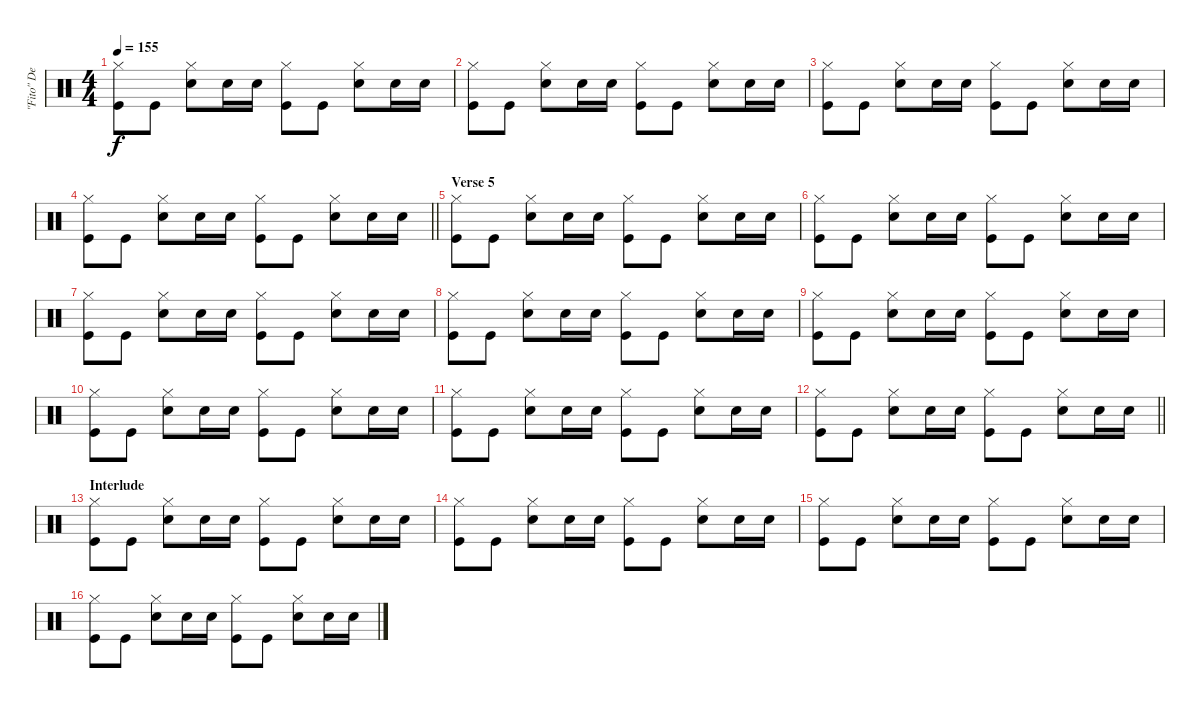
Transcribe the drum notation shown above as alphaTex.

\track ("\"Fito\" De La Parra" "\"Fito\" De ") {instrument percussion}
\staff {score}
\articulation defaults
\ts (4 4)
\tempo 155
\clef neutral
\ks c
("Hi-Hat (closed)" "Kick (hit)").8{dy f} "Kick (hit)".8 ("Hi-Hat (closed)" "Snare (hit) 2").8 "Snare (hit) 2".16 "Snare (hit) 2".16 ("Hi-Hat (closed)" "Kick (hit)").8 "Kick (hit)".8 ("Hi-Hat (closed)" "Snare (hit) 2").8 "Snare (hit) 2".16 "Snare (hit) 2".16 |
("Hi-Hat (closed)" "Kick (hit)").8 "Kick (hit)".8 ("Hi-Hat (closed)" "Snare (hit) 2").8 "Snare (hit) 2".16 "Snare (hit) 2".16 ("Hi-Hat (closed)" "Kick (hit)").8 "Kick (hit)".8 ("Hi-Hat (closed)" "Snare (hit) 2").8 "Snare (hit) 2".16 "Snare (hit) 2".16 |
("Hi-Hat (closed)" "Kick (hit)").8 "Kick (hit)".8 ("Hi-Hat (closed)" "Snare (hit) 2").8 "Snare (hit) 2".16 "Snare (hit) 2".16 ("Hi-Hat (closed)" "Kick (hit)").8 "Kick (hit)".8 ("Hi-Hat (closed)" "Snare (hit) 2").8 "Snare (hit) 2".16 "Snare (hit) 2".16 |
\barLineRight lightlight
("Hi-Hat (closed)" "Kick (hit)").8 "Kick (hit)".8 ("Hi-Hat (closed)" "Snare (hit) 2").8 "Snare (hit) 2".16 "Snare (hit) 2".16 ("Hi-Hat (closed)" "Kick (hit)").8 "Kick (hit)".8 ("Hi-Hat (closed)" "Snare (hit) 2").8 "Snare (hit) 2".16 "Snare (hit) 2".16 |
\section ("" "Verse 5")
("Hi-Hat (closed)" "Kick (hit)").8 "Kick (hit)".8 ("Hi-Hat (closed)" "Snare (hit) 2").8 "Snare (hit) 2".16 "Snare (hit) 2".16 ("Hi-Hat (closed)" "Kick (hit)").8 "Kick (hit)".8 ("Hi-Hat (closed)" "Snare (hit) 2").8 "Snare (hit) 2".16 "Snare (hit) 2".16 |
("Hi-Hat (closed)" "Kick (hit)").8 "Kick (hit)".8 ("Hi-Hat (closed)" "Snare (hit) 2").8 "Snare (hit) 2".16 "Snare (hit) 2".16 ("Hi-Hat (closed)" "Kick (hit)").8 "Kick (hit)".8 ("Hi-Hat (closed)" "Snare (hit) 2").8 "Snare (hit) 2".16 "Snare (hit) 2".16 |
("Hi-Hat (closed)" "Kick (hit)").8 "Kick (hit)".8 ("Hi-Hat (closed)" "Snare (hit) 2").8 "Snare (hit) 2".16 "Snare (hit) 2".16 ("Hi-Hat (closed)" "Kick (hit)").8 "Kick (hit)".8 ("Hi-Hat (closed)" "Snare (hit) 2").8 "Snare (hit) 2".16 "Snare (hit) 2".16 |
("Hi-Hat (closed)" "Kick (hit)").8 "Kick (hit)".8 ("Hi-Hat (closed)" "Snare (hit) 2").8 "Snare (hit) 2".16 "Snare (hit) 2".16 ("Hi-Hat (closed)" "Kick (hit)").8 "Kick (hit)".8 ("Hi-Hat (closed)" "Snare (hit) 2").8 "Snare (hit) 2".16 "Snare (hit) 2".16 |
("Hi-Hat (closed)" "Kick (hit)").8 "Kick (hit)".8 ("Hi-Hat (closed)" "Snare (hit) 2").8 "Snare (hit) 2".16 "Snare (hit) 2".16 ("Hi-Hat (closed)" "Kick (hit)").8 "Kick (hit)".8 ("Hi-Hat (closed)" "Snare (hit) 2").8 "Snare (hit) 2".16 "Snare (hit) 2".16 |
("Hi-Hat (closed)" "Kick (hit)").8 "Kick (hit)".8 ("Hi-Hat (closed)" "Snare (hit) 2").8 "Snare (hit) 2".16 "Snare (hit) 2".16 ("Hi-Hat (closed)" "Kick (hit)").8 "Kick (hit)".8 ("Hi-Hat (closed)" "Snare (hit) 2").8 "Snare (hit) 2".16 "Snare (hit) 2".16 |
("Hi-Hat (closed)" "Kick (hit)").8 "Kick (hit)".8 ("Hi-Hat (closed)" "Snare (hit) 2").8 "Snare (hit) 2".16 "Snare (hit) 2".16 ("Hi-Hat (closed)" "Kick (hit)").8 "Kick (hit)".8 ("Hi-Hat (closed)" "Snare (hit) 2").8 "Snare (hit) 2".16 "Snare (hit) 2".16 |
\barLineRight lightlight
("Hi-Hat (closed)" "Kick (hit)").8 "Kick (hit)".8 ("Hi-Hat (closed)" "Snare (hit) 2").8 "Snare (hit) 2".16 "Snare (hit) 2".16 ("Hi-Hat (closed)" "Kick (hit)").8 "Kick (hit)".8 ("Hi-Hat (closed)" "Snare (hit) 2").8 "Snare (hit) 2".16 "Snare (hit) 2".16 |
\section ("" "Interlude")
("Hi-Hat (closed)" "Kick (hit)").8 "Kick (hit)".8 ("Hi-Hat (closed)" "Snare (hit) 2").8 "Snare (hit) 2".16 "Snare (hit) 2".16 ("Hi-Hat (closed)" "Kick (hit)").8 "Kick (hit)".8 ("Hi-Hat (closed)" "Snare (hit) 2").8 "Snare (hit) 2".16 "Snare (hit) 2".16 |
("Hi-Hat (closed)" "Kick (hit)").8 "Kick (hit)".8 ("Hi-Hat (closed)" "Snare (hit) 2").8 "Snare (hit) 2".16 "Snare (hit) 2".16 ("Hi-Hat (closed)" "Kick (hit)").8 "Kick (hit)".8 ("Hi-Hat (closed)" "Snare (hit) 2").8 "Snare (hit) 2".16 "Snare (hit) 2".16 |
("Hi-Hat (closed)" "Kick (hit)").8 "Kick (hit)".8 ("Hi-Hat (closed)" "Snare (hit) 2").8 "Snare (hit) 2".16 "Snare (hit) 2".16 ("Hi-Hat (closed)" "Kick (hit)").8 "Kick (hit)".8 ("Hi-Hat (closed)" "Snare (hit) 2").8 "Snare (hit) 2".16 "Snare (hit) 2".16 |
("Hi-Hat (closed)" "Kick (hit)").8 "Kick (hit)".8 ("Hi-Hat (closed)" "Snare (hit) 2").8 "Snare (hit) 2".16 "Snare (hit) 2".16 ("Hi-Hat (closed)" "Kick (hit)").8 "Kick (hit)".8 ("Hi-Hat (closed)" "Snare (hit) 2").8 "Snare (hit) 2".16 "Snare (hit) 2".16
